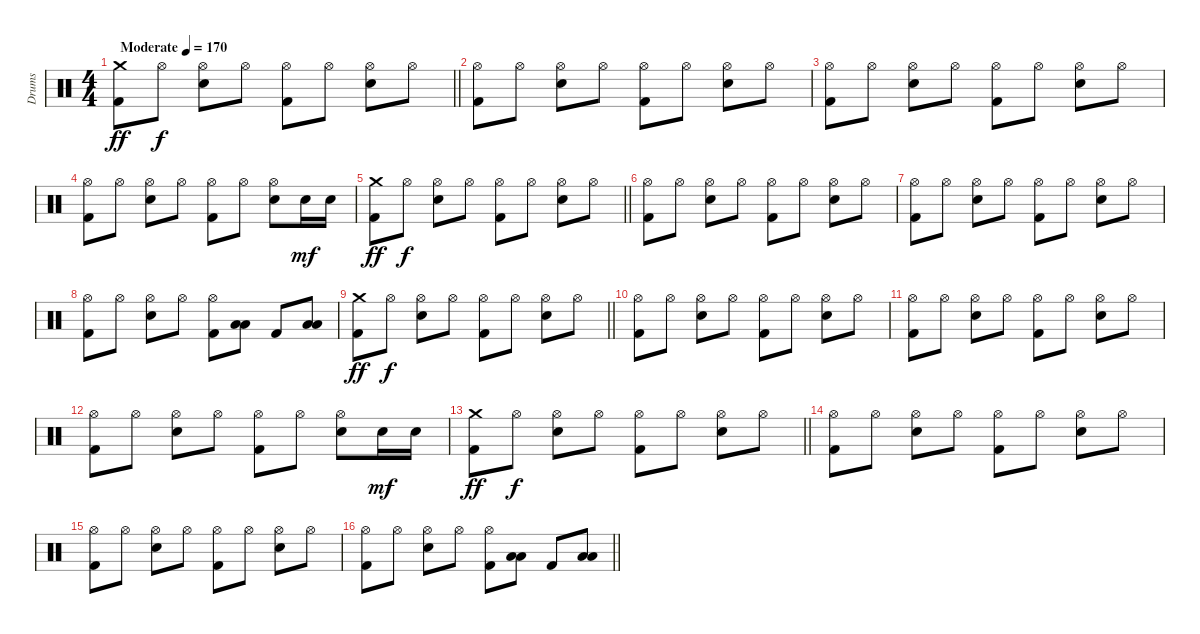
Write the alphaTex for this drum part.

\track ("Drums" "Drums") {instrument percussion}
\staff {score}
\articulation defaults
\ts (4 4)
\tempo (170 "Moderate")
\clef neutral
\barLineRight lightlight
\ks c
("Crash medium (hit)" "Kick (hit) 2").8{dy ff} "Hi-Hat (open)".8{dy f} ("Hi-Hat (open)" "Electric Snare (hit)").8 "Hi-Hat (open)".8 ("Hi-Hat (open)" "Kick (hit) 2").8 "Hi-Hat (open)".8 ("Hi-Hat (open)" "Electric Snare (hit)").8 "Hi-Hat (open)".8 |
("Hi-Hat (open)" "Kick (hit) 2").8 "Hi-Hat (open)".8 ("Hi-Hat (open)" "Electric Snare (hit)").8 "Hi-Hat (open)".8 ("Hi-Hat (open)" "Kick (hit) 2").8 "Hi-Hat (open)".8 ("Hi-Hat (open)" "Electric Snare (hit)").8 "Hi-Hat (open)".8 |
("Hi-Hat (open)" "Kick (hit) 2").8 "Hi-Hat (open)".8 ("Hi-Hat (open)" "Electric Snare (hit)").8 "Hi-Hat (open)".8 ("Hi-Hat (open)" "Kick (hit) 2").8 "Hi-Hat (open)".8 ("Hi-Hat (open)" "Electric Snare (hit)").8 "Hi-Hat (open)".8 |
("Hi-Hat (open)" "Kick (hit) 2").8 "Hi-Hat (open)".8 ("Hi-Hat (open)" "Electric Snare (hit)").8 "Hi-Hat (open)".8 ("Hi-Hat (open)" "Kick (hit) 2").8 "Hi-Hat (open)".8 ("Hi-Hat (open)" "Electric Snare (hit)").8 "Electric Snare (hit)".16{dy mf} "Electric Snare (hit)".16 |
\barLineRight lightlight
("Crash medium (hit)" "Kick (hit) 2").8{dy ff} "Hi-Hat (open)".8{dy f} ("Hi-Hat (open)" "Electric Snare (hit)").8 "Hi-Hat (open)".8 ("Hi-Hat (open)" "Kick (hit) 2").8 "Hi-Hat (open)".8 ("Hi-Hat (open)" "Electric Snare (hit)").8 "Hi-Hat (open)".8 |
("Hi-Hat (open)" "Kick (hit) 2").8 "Hi-Hat (open)".8 ("Hi-Hat (open)" "Electric Snare (hit)").8 "Hi-Hat (open)".8 ("Hi-Hat (open)" "Kick (hit) 2").8 "Hi-Hat (open)".8 ("Hi-Hat (open)" "Electric Snare (hit)").8 "Hi-Hat (open)".8 |
("Hi-Hat (open)" "Kick (hit) 2").8 "Hi-Hat (open)".8 ("Hi-Hat (open)" "Electric Snare (hit)").8 "Hi-Hat (open)".8 ("Hi-Hat (open)" "Kick (hit) 2").8 "Hi-Hat (open)".8 ("Hi-Hat (open)" "Electric Snare (hit)").8 "Hi-Hat (open)".8 |
("Hi-Hat (open)" "Kick (hit) 2").8 "Hi-Hat (open)".8 ("Hi-Hat (open)" "Electric Snare (hit)").8 "Hi-Hat (open)".8 ("Hi-Hat (open)" "Kick (hit) 2").8 ("Low Tom (hit)" "Low Floor Tom (hit)").8 "Kick (hit) 2".8 ("Low Tom (hit)" "Low Floor Tom (hit)").8 |
\barLineRight lightlight
("Crash medium (hit)" "Kick (hit) 2").8{dy ff} "Hi-Hat (open)".8{dy f} ("Hi-Hat (open)" "Electric Snare (hit)").8 "Hi-Hat (open)".8 ("Hi-Hat (open)" "Kick (hit) 2").8 "Hi-Hat (open)".8 ("Hi-Hat (open)" "Electric Snare (hit)").8 "Hi-Hat (open)".8 |
("Hi-Hat (open)" "Kick (hit) 2").8 "Hi-Hat (open)".8 ("Hi-Hat (open)" "Electric Snare (hit)").8 "Hi-Hat (open)".8 ("Hi-Hat (open)" "Kick (hit) 2").8 "Hi-Hat (open)".8 ("Hi-Hat (open)" "Electric Snare (hit)").8 "Hi-Hat (open)".8 |
("Hi-Hat (open)" "Kick (hit) 2").8 "Hi-Hat (open)".8 ("Hi-Hat (open)" "Electric Snare (hit)").8 "Hi-Hat (open)".8 ("Hi-Hat (open)" "Kick (hit) 2").8 "Hi-Hat (open)".8 ("Hi-Hat (open)" "Electric Snare (hit)").8 "Hi-Hat (open)".8 |
("Hi-Hat (open)" "Kick (hit) 2").8 "Hi-Hat (open)".8 ("Hi-Hat (open)" "Electric Snare (hit)").8 "Hi-Hat (open)".8 ("Hi-Hat (open)" "Kick (hit) 2").8 "Hi-Hat (open)".8 ("Hi-Hat (open)" "Electric Snare (hit)").8 "Electric Snare (hit)".16{dy mf} "Electric Snare (hit)".16 |
\barLineRight lightlight
("Crash medium (hit)" "Kick (hit) 2").8{dy ff} "Hi-Hat (open)".8{dy f} ("Hi-Hat (open)" "Electric Snare (hit)").8 "Hi-Hat (open)".8 ("Hi-Hat (open)" "Kick (hit) 2").8 "Hi-Hat (open)".8 ("Hi-Hat (open)" "Electric Snare (hit)").8 "Hi-Hat (open)".8 |
("Hi-Hat (open)" "Kick (hit) 2").8 "Hi-Hat (open)".8 ("Hi-Hat (open)" "Electric Snare (hit)").8 "Hi-Hat (open)".8 ("Hi-Hat (open)" "Kick (hit) 2").8 "Hi-Hat (open)".8 ("Hi-Hat (open)" "Electric Snare (hit)").8 "Hi-Hat (open)".8 |
("Hi-Hat (open)" "Kick (hit) 2").8 "Hi-Hat (open)".8 ("Hi-Hat (open)" "Electric Snare (hit)").8 "Hi-Hat (open)".8 ("Hi-Hat (open)" "Kick (hit) 2").8 "Hi-Hat (open)".8 ("Hi-Hat (open)" "Electric Snare (hit)").8 "Hi-Hat (open)".8 |
\barLineRight lightlight
("Hi-Hat (open)" "Kick (hit) 2").8 "Hi-Hat (open)".8 ("Hi-Hat (open)" "Electric Snare (hit)").8 "Hi-Hat (open)".8 ("Hi-Hat (open)" "Kick (hit) 2").8 ("Low Tom (hit)" "Low Floor Tom (hit)").8 "Kick (hit) 2".8 ("Low Tom (hit)" "Low Floor Tom (hit)").8
